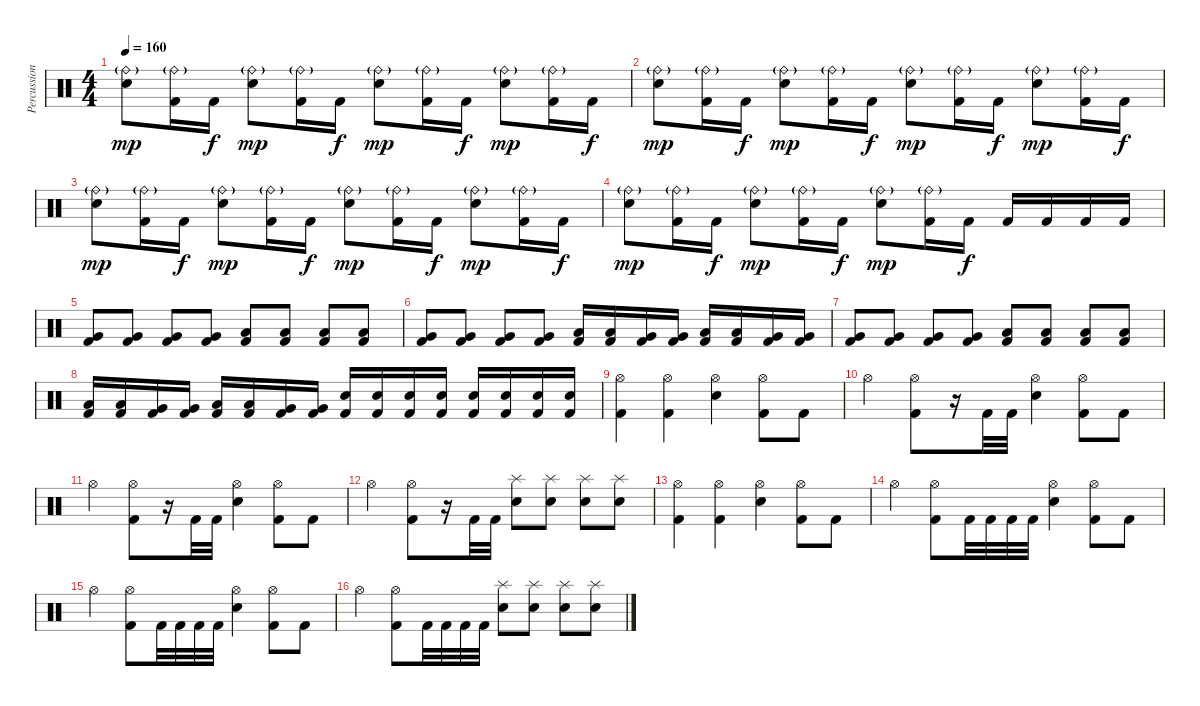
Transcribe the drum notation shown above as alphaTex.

\track ("Percussion" "Percussion") {instrument percussion}
\staff {score}
\articulation defaults
\ts (4 4)
\tempo 160
\clef neutral
\ks c
("Electric Snare (hit)" "Ride (bell)"{g}).8{dy mp} ("Kick (hit) 2" "Ride (bell)"{g}).16 "Kick (hit) 2".16{dy f} ("Electric Snare (hit)" "Ride (bell)"{g}).8{dy mp} ("Kick (hit) 2" "Ride (bell)"{g}).16 "Kick (hit) 2".16{dy f} ("Electric Snare (hit)" "Ride (bell)"{g}).8{dy mp} ("Kick (hit) 2" "Ride (bell)"{g}).16 "Kick (hit) 2".16{dy f} ("Electric Snare (hit)" "Ride (bell)"{g}).8{dy mp} ("Kick (hit) 2" "Ride (bell)"{g}).16 "Kick (hit) 2".16{dy f} |
("Electric Snare (hit)" "Ride (bell)"{g}).8{dy mp} ("Kick (hit) 2" "Ride (bell)"{g}).16 "Kick (hit) 2".16{dy f} ("Electric Snare (hit)" "Ride (bell)"{g}).8{dy mp} ("Kick (hit) 2" "Ride (bell)"{g}).16 "Kick (hit) 2".16{dy f} ("Electric Snare (hit)" "Ride (bell)"{g}).8{dy mp} ("Kick (hit) 2" "Ride (bell)"{g}).16 "Kick (hit) 2".16{dy f} ("Electric Snare (hit)" "Ride (bell)"{g}).8{dy mp} ("Kick (hit) 2" "Ride (bell)"{g}).16 "Kick (hit) 2".16{dy f} |
("Electric Snare (hit)" "Ride (bell)"{g}).8{dy mp} ("Kick (hit) 2" "Ride (bell)"{g}).16 "Kick (hit) 2".16{dy f} ("Electric Snare (hit)" "Ride (bell)"{g}).8{dy mp} ("Kick (hit) 2" "Ride (bell)"{g}).16 "Kick (hit) 2".16{dy f} ("Electric Snare (hit)" "Ride (bell)"{g}).8{dy mp} ("Kick (hit) 2" "Ride (bell)"{g}).16 "Kick (hit) 2".16{dy f} ("Electric Snare (hit)" "Ride (bell)"{g}).8{dy mp} ("Kick (hit) 2" "Ride (bell)"{g}).16 "Kick (hit) 2".16{dy f} |
("Electric Snare (hit)" "Ride (bell)"{g}).8{dy mp} ("Kick (hit) 2" "Ride (bell)"{g}).16 "Kick (hit) 2".16{dy f} ("Electric Snare (hit)" "Ride (bell)"{g}).8{dy mp} ("Kick (hit) 2" "Ride (bell)"{g}).16 "Kick (hit) 2".16{dy f} ("Electric Snare (hit)" "Ride (bell)"{g}).8{dy mp} ("Kick (hit) 2" "Ride (bell)"{g}).16 "Kick (hit) 2".16{dy f} "Kick (hit) 2".16 "Kick (hit) 2".16 "Kick (hit) 2".16 "Kick (hit) 2".16 |
("Kick (hit) 2" "Very Low Tom (hit)").8 ("Kick (hit) 2" "Very Low Tom (hit)").8 ("Kick (hit) 2" "Very Low Tom (hit)").8 ("Kick (hit) 2" "Very Low Tom (hit)").8 ("Kick (hit) 2" "Low Floor Tom (hit)").8 ("Kick (hit) 2" "Low Floor Tom (hit)").8 ("Kick (hit) 2" "Low Floor Tom (hit)").8 ("Kick (hit) 2" "Low Floor Tom (hit)").8 |
("Kick (hit) 2" "Very Low Tom (hit)").8 ("Kick (hit) 2" "Very Low Tom (hit)").8 ("Kick (hit) 2" "Very Low Tom (hit)").8 ("Kick (hit) 2" "Very Low Tom (hit)").8 ("Kick (hit) 2" "Low Floor Tom (hit)").16 ("Kick (hit) 2" "Low Floor Tom (hit)").16 ("Kick (hit) 2" "Very Low Tom (hit)").16 ("Kick (hit) 2" "Very Low Tom (hit)").16 ("Kick (hit) 2" "Low Floor Tom (hit)").16 ("Kick (hit) 2" "Low Floor Tom (hit)").16 ("Kick (hit) 2" "Very Low Tom (hit)").16 ("Kick (hit) 2" "Very Low Tom (hit)").16 |
("Kick (hit) 2" "Very Low Tom (hit)").8 ("Kick (hit) 2" "Very Low Tom (hit)").8 ("Kick (hit) 2" "Very Low Tom (hit)").8 ("Kick (hit) 2" "Very Low Tom (hit)").8 ("Kick (hit) 2" "Low Floor Tom (hit)").8 ("Kick (hit) 2" "Low Floor Tom (hit)").8 ("Kick (hit) 2" "Low Floor Tom (hit)").8 ("Kick (hit) 2" "Low Floor Tom (hit)").8 |
("Kick (hit) 2" "Low Floor Tom (hit)").16 ("Kick (hit) 2" "Low Floor Tom (hit)").16 ("Kick (hit) 2" "Very Low Tom (hit)").16 ("Kick (hit) 2" "Very Low Tom (hit)").16 ("Kick (hit) 2" "Low Floor Tom (hit)").16 ("Kick (hit) 2" "Low Floor Tom (hit)").16 ("Kick (hit) 2" "Very Low Tom (hit)").16 ("Kick (hit) 2" "Very Low Tom (hit)").16 ("Kick (hit) 2" "Electric Snare (hit)").16 ("Kick (hit) 2" "Electric Snare (hit)").16 ("Kick (hit) 2" "Electric Snare (hit)").16 ("Kick (hit) 2" "Electric Snare (hit)").16 ("Kick (hit) 2" "Electric Snare (hit)").16 ("Kick (hit) 2" "Electric Snare (hit)").16 ("Kick (hit) 2" "Electric Snare (hit)").16 ("Kick (hit) 2" "Electric Snare (hit)").16 |
("Kick (hit) 2" "Hi-Hat (open)").4 ("Kick (hit) 2" "Hi-Hat (open)").4 ("Electric Snare (hit)" "Hi-Hat (open)").4 ("Kick (hit) 2" "Hi-Hat (open)").8 "Kick (hit) 2".8 |
"Hi-Hat (open)".4 ("Kick (hit) 2" "Hi-Hat (open)").8 r.16 "Kick (hit) 2".32 "Kick (hit) 2".32 ("Electric Snare (hit)" "Hi-Hat (open)").4 ("Kick (hit) 2" "Hi-Hat (open)").8 "Kick (hit) 2".8 |
"Hi-Hat (open)".4 ("Kick (hit) 2" "Hi-Hat (open)").8 r.16 "Kick (hit) 2".32 "Kick (hit) 2".32 ("Electric Snare (hit)" "Hi-Hat (open)").4 ("Kick (hit) 2" "Hi-Hat (open)").8 "Kick (hit) 2".8 |
"Hi-Hat (open)".4 ("Kick (hit) 2" "Hi-Hat (open)").8 r.16 "Kick (hit) 2".32 "Kick (hit) 2".32 ("Electric Snare (hit)" "Splash (hit)").8 ("Electric Snare (hit)" "Splash (hit)").8 ("Electric Snare (hit)" "Splash (hit)").8 ("Electric Snare (hit)" "Splash (hit)").8 |
("Kick (hit) 2" "Hi-Hat (open)").4 ("Kick (hit) 2" "Hi-Hat (open)").4 ("Electric Snare (hit)" "Hi-Hat (open)").4 ("Kick (hit) 2" "Hi-Hat (open)").8 "Kick (hit) 2".8 |
"Hi-Hat (open)".4 ("Kick (hit) 2" "Hi-Hat (open)").8 "Kick (hit) 2".32 "Kick (hit) 2".32 "Kick (hit) 2".32 "Kick (hit) 2".32 ("Electric Snare (hit)" "Hi-Hat (open)").4 ("Kick (hit) 2" "Hi-Hat (open)").8 "Kick (hit) 2".8 |
"Hi-Hat (open)".4 ("Kick (hit) 2" "Hi-Hat (open)").8 "Kick (hit) 2".32 "Kick (hit) 2".32 "Kick (hit) 2".32 "Kick (hit) 2".32 ("Electric Snare (hit)" "Hi-Hat (open)").4 ("Kick (hit) 2" "Hi-Hat (open)").8 "Kick (hit) 2".8 |
"Hi-Hat (open)".4 ("Kick (hit) 2" "Hi-Hat (open)").8 "Kick (hit) 2".32 "Kick (hit) 2".32 "Kick (hit) 2".32 "Kick (hit) 2".32 ("Electric Snare (hit)" "Splash (hit)").8 ("Electric Snare (hit)" "Splash (hit)").8 ("Electric Snare (hit)" "Splash (hit)").8 ("Electric Snare (hit)" "Splash (hit)").8
